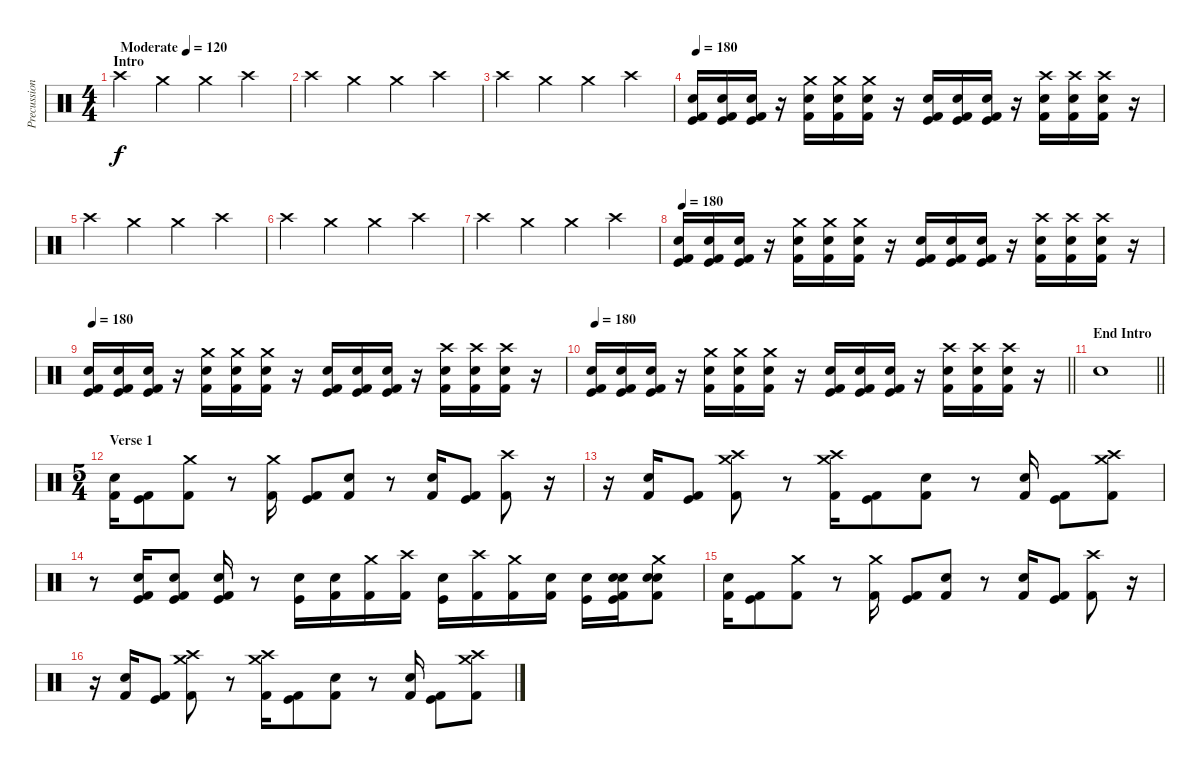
\track ("Precussion" "Precussion") {instrument percussion}
\staff {score}
\articulation defaults
\ts (4 4)
\section ("" "Intro")
\tempo (120 "Moderate")
\clef neutral
\ks c "Crash high (hit)".4{dy f} "Crash medium (hit)".4 "Crash medium (hit)".4 "Crash high (hit)".4
|
"Crash high (hit)".4 "Crash medium (hit)".4 "Crash medium (hit)".4 "Crash high (hit)".4 |
"Crash high (hit)".4 "Crash medium (hit)".4 "Crash medium (hit)".4 "Crash high (hit)".4 |
\tempo 180
("Kick (hit)" "Electric Snare (hit)" "Kick (hit) 2").16 ("Kick (hit)" "Electric Snare (hit)" "Kick (hit) 2").16 ("Kick (hit)" "Electric Snare (hit)" "Kick (hit) 2").16 r.16 ("Crash medium (hit)" "Electric Snare (hit)" "Kick (hit) 2").16 ("Crash medium (hit)" "Electric Snare (hit)" "Kick (hit) 2").16 ("Crash medium (hit)" "Electric Snare (hit)" "Kick (hit) 2").16 r.16 ("Kick (hit)" "Electric Snare (hit)" "Kick (hit) 2").16 ("Kick (hit)" "Electric Snare (hit)" "Kick (hit) 2").16 ("Kick (hit)" "Electric Snare (hit)" "Kick (hit) 2").16 r.16 ("Crash high (hit)" "Electric Snare (hit)" "Kick (hit) 2").16 ("Crash high (hit)" "Electric Snare (hit)" "Kick (hit) 2").16 ("Crash high (hit)" "Electric Snare (hit)" "Kick (hit) 2").16 r.16 |
"Crash high (hit)".4 "Crash medium (hit)".4 "Crash medium (hit)".4 "Crash high (hit)".4 |
"Crash high (hit)".4 "Crash medium (hit)".4 "Crash medium (hit)".4 "Crash high (hit)".4 |
"Crash high (hit)".4 "Crash medium (hit)".4 "Crash medium (hit)".4 "Crash high (hit)".4 |
\tempo 180
("Kick (hit)" "Electric Snare (hit)" "Kick (hit) 2").16 ("Kick (hit)" "Electric Snare (hit)" "Kick (hit) 2").16 ("Kick (hit)" "Electric Snare (hit)" "Kick (hit) 2").16 r.16 ("Crash medium (hit)" "Electric Snare (hit)" "Kick (hit) 2").16 ("Crash medium (hit)" "Electric Snare (hit)" "Kick (hit) 2").16 ("Crash medium (hit)" "Electric Snare (hit)" "Kick (hit) 2").16 r.16 ("Kick (hit)" "Electric Snare (hit)" "Kick (hit) 2").16 ("Kick (hit)" "Electric Snare (hit)" "Kick (hit) 2").16 ("Kick (hit)" "Electric Snare (hit)" "Kick (hit) 2").16 r.16 ("Crash high (hit)" "Electric Snare (hit)" "Kick (hit) 2").16 ("Crash high (hit)" "Electric Snare (hit)" "Kick (hit) 2").16 ("Crash high (hit)" "Electric Snare (hit)" "Kick (hit) 2").16 r.16 |
\tempo 180
("Kick (hit)" "Electric Snare (hit)" "Kick (hit) 2").16 ("Kick (hit)" "Electric Snare (hit)" "Kick (hit) 2").16 ("Kick (hit)" "Electric Snare (hit)" "Kick (hit) 2").16 r.16 ("Crash medium (hit)" "Electric Snare (hit)" "Kick (hit) 2").16 ("Crash medium (hit)" "Electric Snare (hit)" "Kick (hit) 2").16 ("Crash medium (hit)" "Electric Snare (hit)" "Kick (hit) 2").16 r.16 ("Kick (hit)" "Electric Snare (hit)" "Kick (hit) 2").16 ("Kick (hit)" "Electric Snare (hit)" "Kick (hit) 2").16 ("Kick (hit)" "Electric Snare (hit)" "Kick (hit) 2").16 r.16 ("Crash high (hit)" "Electric Snare (hit)" "Kick (hit) 2").16 ("Crash high (hit)" "Electric Snare (hit)" "Kick (hit) 2").16 ("Crash high (hit)" "Electric Snare (hit)" "Kick (hit) 2").16 r.16 |
\tempo 180
\barLineRight lightlight
("Kick (hit)" "Electric Snare (hit)" "Kick (hit) 2").16 ("Kick (hit)" "Electric Snare (hit)" "Kick (hit) 2").16 ("Kick (hit)" "Electric Snare (hit)" "Kick (hit) 2").16 r.16 ("Crash medium (hit)" "Electric Snare (hit)" "Kick (hit) 2").16 ("Crash medium (hit)" "Electric Snare (hit)" "Kick (hit) 2").16 ("Crash medium (hit)" "Electric Snare (hit)" "Kick (hit) 2").16 r.16 ("Kick (hit)" "Electric Snare (hit)" "Kick (hit) 2").16 ("Kick (hit)" "Electric Snare (hit)" "Kick (hit) 2").16 ("Kick (hit)" "Electric Snare (hit)" "Kick (hit) 2").16 r.16 ("Crash high (hit)" "Electric Snare (hit)" "Kick (hit) 2").16 ("Crash high (hit)" "Electric Snare (hit)" "Kick (hit) 2").16 ("Crash high (hit)" "Electric Snare (hit)" "Kick (hit) 2").16 r.16 |
\section ("" "End Intro")
\barLineRight lightlight "Electric Snare (hit)".1
|
\ts (5 4)
\section ("" "Verse 1")
("Electric Snare (hit)" "Kick (hit) 2").16 ("Kick (hit)" "Kick (hit) 2").8 ("Crash medium (hit)" "Kick (hit) 2").8 r.8 ("Crash medium (hit)" "Kick (hit) 2").16 ("Kick (hit)" "Kick (hit) 2").8 ("Electric Snare (hit)" "Kick (hit) 2").8 r.8 ("Electric Snare (hit)" "Kick (hit) 2").16 ("Kick (hit)" "Kick (hit) 2").8 ("Crash high (hit)" "Kick (hit) 2").8 r.16 |
r.16 ("Electric Snare (hit)" "Kick (hit) 2").16 ("Kick (hit)" "Kick (hit) 2").8 ("Crash high (hit)" "Crash medium (hit)" "Kick (hit) 2").8 r.8 ("Crash high (hit)" "Crash medium (hit)" "Kick (hit) 2").16 ("Kick (hit)" "Kick (hit) 2").8 ("Electric Snare (hit)" "Kick (hit) 2").8 r.8 ("Electric Snare (hit)" "Kick (hit) 2").16 ("Kick (hit)" "Kick (hit) 2").8 ("Crash high (hit)" "Crash medium (hit)" "Kick (hit) 2").8 |
r.8 ("Kick (hit)" "Electric Snare (hit)" "Kick (hit) 2").16 ("Kick (hit)" "Electric Snare (hit)" "Kick (hit) 2").8 ("Kick (hit)" "Electric Snare (hit)" "Kick (hit) 2").16 r.8 ("Electric Snare (hit)" "Kick (hit)").16 ("Electric Snare (hit)" "Kick (hit) 2").16 ("Crash medium (hit)" "Kick (hit) 2").16 ("Crash high (hit)" "Kick (hit) 2").16 ("Electric Snare (hit)" "Kick (hit)").16 ("Crash high (hit)" "Kick (hit) 2").16 ("Crash medium (hit)" "Kick (hit) 2").16 ("Electric Snare (hit)" "Kick (hit) 2").16 ("Electric Snare (hit)" "Kick (hit)").16 ("Kick (hit)" "Electric Snare (hit)" "Electric Snare (hit)" "Kick (hit) 2").16 ("Crash medium (hit)" "Electric Snare (hit)" "Electric Snare (hit)" "Kick (hit) 2").8 |
("Electric Snare (hit)" "Kick (hit) 2").16 ("Kick (hit)" "Kick (hit) 2").8 ("Crash medium (hit)" "Kick (hit) 2").8 r.8 ("Crash medium (hit)" "Kick (hit) 2").16 ("Kick (hit)" "Kick (hit) 2").8 ("Electric Snare (hit)" "Kick (hit) 2").8 r.8 ("Electric Snare (hit)" "Kick (hit) 2").16 ("Kick (hit)" "Kick (hit) 2").8 ("Crash high (hit)" "Kick (hit) 2").8 r.16 |
r.16 ("Electric Snare (hit)" "Kick (hit) 2").16 ("Kick (hit)" "Kick (hit) 2").8 ("Crash high (hit)" "Crash medium (hit)" "Kick (hit) 2").8 r.8 ("Crash high (hit)" "Crash medium (hit)" "Kick (hit) 2").16 ("Kick (hit)" "Kick (hit) 2").8 ("Electric Snare (hit)" "Kick (hit) 2").8 r.8 ("Electric Snare (hit)" "Kick (hit) 2").16 ("Kick (hit)" "Kick (hit) 2").8 ("Crash high (hit)" "Crash medium (hit)" "Kick (hit) 2").8
